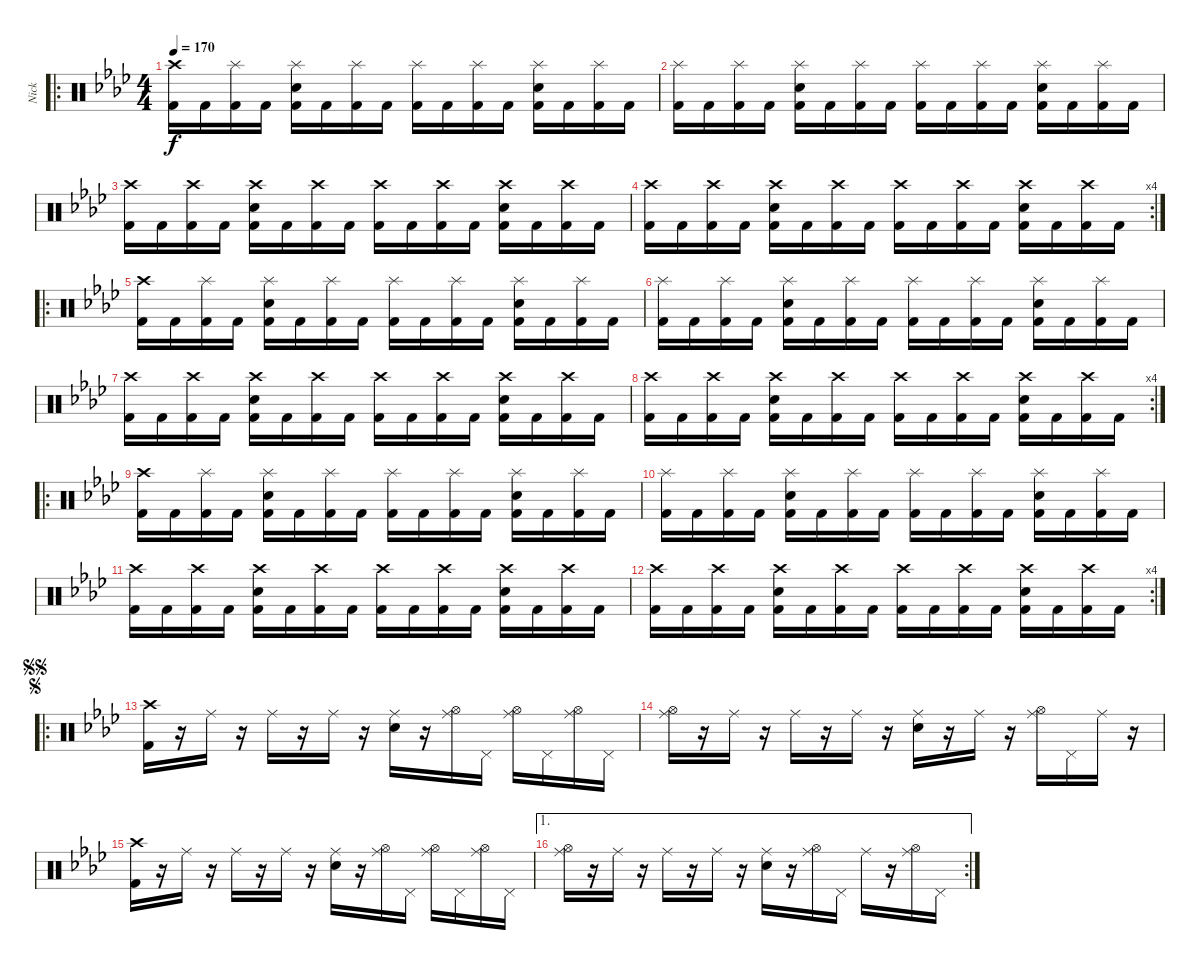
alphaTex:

\track ("Nick" "Nick") {instrument percussion}
\staff {score}
\articulation defaults
\ro
\ts (4 4)
\tempo 170
\clef neutral
\ks ab
("Crash high (hit)" "Kick (hit) 2").16{dy f} "Kick (hit) 2".16 ("Splash (hit)" "Kick (hit) 2").16 "Kick (hit) 2".16 ("Splash (hit)" "Snare (hit) 2" "Kick (hit) 2").16 "Kick (hit) 2".16 ("Splash (hit)" "Kick (hit) 2").16 "Kick (hit) 2".16 ("Splash (hit)" "Kick (hit) 2").16 "Kick (hit) 2".16 ("Splash (hit)" "Kick (hit) 2").16 "Kick (hit) 2".16 ("Splash (hit)" "Snare (hit) 2" "Kick (hit) 2").16 "Kick (hit) 2".16 ("Splash (hit)" "Kick (hit) 2").16 "Kick (hit) 2".16 |
("Splash (hit)" "Kick (hit) 2").16 "Kick (hit) 2".16 ("Splash (hit)" "Kick (hit) 2").16 "Kick (hit) 2".16 ("Splash (hit)" "Snare (hit) 2" "Kick (hit) 2").16 "Kick (hit) 2".16 ("Splash (hit)" "Kick (hit) 2").16 "Kick (hit) 2".16 ("Splash (hit)" "Kick (hit) 2").16 "Kick (hit) 2".16 ("Splash (hit)" "Kick (hit) 2").16 "Kick (hit) 2".16 ("Splash (hit)" "Snare (hit) 2" "Kick (hit) 2").16 "Kick (hit) 2".16 ("Splash (hit)" "Kick (hit) 2").16 "Kick (hit) 2".16 |
("Crash high (hit)" "Kick (hit) 2").16 "Kick (hit) 2".16 ("Crash high (hit)" "Kick (hit) 2").16 "Kick (hit) 2".16 ("Crash high (hit)" "Snare (hit) 2" "Kick (hit) 2").16 "Kick (hit) 2".16 ("Crash high (hit)" "Kick (hit) 2").16 "Kick (hit) 2".16 ("Crash high (hit)" "Kick (hit) 2").16 "Kick (hit) 2".16 ("Crash high (hit)" "Kick (hit) 2").16 "Kick (hit) 2".16 ("Crash high (hit)" "Snare (hit) 2" "Kick (hit) 2").16 "Kick (hit) 2".16 ("Crash high (hit)" "Kick (hit) 2").16 "Kick (hit) 2".16 |
\rc 4
("Crash high (hit)" "Kick (hit) 2").16 "Kick (hit) 2".16 ("Crash high (hit)" "Kick (hit) 2").16 "Kick (hit) 2".16 ("Crash high (hit)" "Snare (hit) 2" "Kick (hit) 2").16 "Kick (hit) 2".16 ("Crash high (hit)" "Kick (hit) 2").16 "Kick (hit) 2".16 ("Crash high (hit)" "Kick (hit) 2").16 "Kick (hit) 2".16 ("Crash high (hit)" "Kick (hit) 2").16 "Kick (hit) 2".16 ("Crash high (hit)" "Snare (hit) 2" "Kick (hit) 2").16 "Kick (hit) 2".16 ("Crash high (hit)" "Kick (hit) 2").16 "Kick (hit) 2".16 |
\ro
("Crash high (hit)" "Kick (hit) 2").16 "Kick (hit) 2".16 ("Splash (hit)" "Kick (hit) 2").16 "Kick (hit) 2".16 ("Splash (hit)" "Snare (hit) 2" "Kick (hit) 2").16 "Kick (hit) 2".16 ("Splash (hit)" "Kick (hit) 2").16 "Kick (hit) 2".16 ("Splash (hit)" "Kick (hit) 2").16 "Kick (hit) 2".16 ("Splash (hit)" "Kick (hit) 2").16 "Kick (hit) 2".16 ("Splash (hit)" "Snare (hit) 2" "Kick (hit) 2").16 "Kick (hit) 2".16 ("Splash (hit)" "Kick (hit) 2").16 "Kick (hit) 2".16 |
("Splash (hit)" "Kick (hit) 2").16 "Kick (hit) 2".16 ("Splash (hit)" "Kick (hit) 2").16 "Kick (hit) 2".16 ("Splash (hit)" "Snare (hit) 2" "Kick (hit) 2").16 "Kick (hit) 2".16 ("Splash (hit)" "Kick (hit) 2").16 "Kick (hit) 2".16 ("Splash (hit)" "Kick (hit) 2").16 "Kick (hit) 2".16 ("Splash (hit)" "Kick (hit) 2").16 "Kick (hit) 2".16 ("Splash (hit)" "Snare (hit) 2" "Kick (hit) 2").16 "Kick (hit) 2".16 ("Splash (hit)" "Kick (hit) 2").16 "Kick (hit) 2".16 |
("Crash high (hit)" "Kick (hit) 2").16 "Kick (hit) 2".16 ("Crash high (hit)" "Kick (hit) 2").16 "Kick (hit) 2".16 ("Crash high (hit)" "Snare (hit) 2" "Kick (hit) 2").16 "Kick (hit) 2".16 ("Crash high (hit)" "Kick (hit) 2").16 "Kick (hit) 2".16 ("Crash high (hit)" "Kick (hit) 2").16 "Kick (hit) 2".16 ("Crash high (hit)" "Kick (hit) 2").16 "Kick (hit) 2".16 ("Crash high (hit)" "Snare (hit) 2" "Kick (hit) 2").16 "Kick (hit) 2".16 ("Crash high (hit)" "Kick (hit) 2").16 "Kick (hit) 2".16 |
\rc 4
("Crash high (hit)" "Kick (hit) 2").16 "Kick (hit) 2".16 ("Crash high (hit)" "Kick (hit) 2").16 "Kick (hit) 2".16 ("Crash high (hit)" "Snare (hit) 2" "Kick (hit) 2").16 "Kick (hit) 2".16 ("Crash high (hit)" "Kick (hit) 2").16 "Kick (hit) 2".16 ("Crash high (hit)" "Kick (hit) 2").16 "Kick (hit) 2".16 ("Crash high (hit)" "Kick (hit) 2").16 "Kick (hit) 2".16 ("Crash high (hit)" "Snare (hit) 2" "Kick (hit) 2").16 "Kick (hit) 2".16 ("Crash high (hit)" "Kick (hit) 2").16 "Kick (hit) 2".16 |
\ro
("Crash high (hit)" "Kick (hit) 2").16 "Kick (hit) 2".16 ("Splash (hit)" "Kick (hit) 2").16 "Kick (hit) 2".16 ("Splash (hit)" "Snare (hit) 2" "Kick (hit) 2").16 "Kick (hit) 2".16 ("Splash (hit)" "Kick (hit) 2").16 "Kick (hit) 2".16 ("Splash (hit)" "Kick (hit) 2").16 "Kick (hit) 2".16 ("Splash (hit)" "Kick (hit) 2").16 "Kick (hit) 2".16 ("Splash (hit)" "Snare (hit) 2" "Kick (hit) 2").16 "Kick (hit) 2".16 ("Splash (hit)" "Kick (hit) 2").16 "Kick (hit) 2".16 |
("Splash (hit)" "Kick (hit) 2").16 "Kick (hit) 2".16 ("Splash (hit)" "Kick (hit) 2").16 "Kick (hit) 2".16 ("Splash (hit)" "Snare (hit) 2" "Kick (hit) 2").16 "Kick (hit) 2".16 ("Splash (hit)" "Kick (hit) 2").16 "Kick (hit) 2".16 ("Splash (hit)" "Kick (hit) 2").16 "Kick (hit) 2".16 ("Splash (hit)" "Kick (hit) 2").16 "Kick (hit) 2".16 ("Splash (hit)" "Snare (hit) 2" "Kick (hit) 2").16 "Kick (hit) 2".16 ("Splash (hit)" "Kick (hit) 2").16 "Kick (hit) 2".16 |
("Crash high (hit)" "Kick (hit) 2").16 "Kick (hit) 2".16 ("Crash high (hit)" "Kick (hit) 2").16 "Kick (hit) 2".16 ("Crash high (hit)" "Snare (hit) 2" "Kick (hit) 2").16 "Kick (hit) 2".16 ("Crash high (hit)" "Kick (hit) 2").16 "Kick (hit) 2".16 ("Crash high (hit)" "Kick (hit) 2").16 "Kick (hit) 2".16 ("Crash high (hit)" "Kick (hit) 2").16 "Kick (hit) 2".16 ("Crash high (hit)" "Snare (hit) 2" "Kick (hit) 2").16 "Kick (hit) 2".16 ("Crash high (hit)" "Kick (hit) 2").16 "Kick (hit) 2".16 |
\rc 4
("Crash high (hit)" "Kick (hit) 2").16 "Kick (hit) 2".16 ("Crash high (hit)" "Kick (hit) 2").16 "Kick (hit) 2".16 ("Crash high (hit)" "Snare (hit) 2" "Kick (hit) 2").16 "Kick (hit) 2".16 ("Crash high (hit)" "Kick (hit) 2").16 "Kick (hit) 2".16 ("Crash high (hit)" "Kick (hit) 2").16 "Kick (hit) 2".16 ("Crash high (hit)" "Kick (hit) 2").16 "Kick (hit) 2".16 ("Crash high (hit)" "Snare (hit) 2" "Kick (hit) 2").16 "Kick (hit) 2".16 ("Crash high (hit)" "Kick (hit) 2").16 "Kick (hit) 2".16 |
\ro
\jump segno
\jump segnosegno
("Crash high (hit)" "Kick (hit) 2").16 r.16 "Ride (middle)".16 r.16 "Ride (middle)".16 r.16 "Ride (middle)".16 r.16 ("Ride (middle)" "Snare (hit) 2").16 r.16 ("Hi-Hat (open)" "Ride (middle)").16 "Pedal Hi-Hat (hit)".16 ("Hi-Hat (open)" "Ride (middle)").16 "Pedal Hi-Hat (hit)".16 ("Hi-Hat (open)" "Ride (middle)").16 "Pedal Hi-Hat (hit)".16 |
("Hi-Hat (open)" "Ride (middle)").16 r.16 "Ride (middle)".16 r.16 "Ride (middle)".16 r.16 "Ride (middle)".16 r.16 ("Ride (middle)" "Snare (hit) 2").16 r.16 "Ride (middle)".16 r.16 ("Hi-Hat (open)" "Ride (middle)").16 "Pedal Hi-Hat (hit)".16 "Ride (middle)".16 r.16 |
("Crash high (hit)" "Kick (hit) 2").16 r.16 "Ride (middle)".16 r.16 "Ride (middle)".16 r.16 "Ride (middle)".16 r.16 ("Ride (middle)" "Snare (hit) 2").16 r.16 ("Hi-Hat (open)" "Ride (middle)").16 "Pedal Hi-Hat (hit)".16 ("Hi-Hat (open)" "Ride (middle)").16 "Pedal Hi-Hat (hit)".16 ("Hi-Hat (open)" "Ride (middle)").16 "Pedal Hi-Hat (hit)".16 |
\ae 1
\rc 2
("Hi-Hat (open)" "Ride (middle)").16 r.16 "Ride (middle)".16 r.16 "Ride (middle)".16 r.16 "Ride (middle)".16 r.16 ("Ride (middle)" "Snare (hit) 2").16 r.16 ("Hi-Hat (open)" "Ride (middle)").16 "Pedal Hi-Hat (hit)".16 "Ride (middle)".16 r.16 ("Hi-Hat (open)" "Ride (middle)").16 "Pedal Hi-Hat (hit)".16
